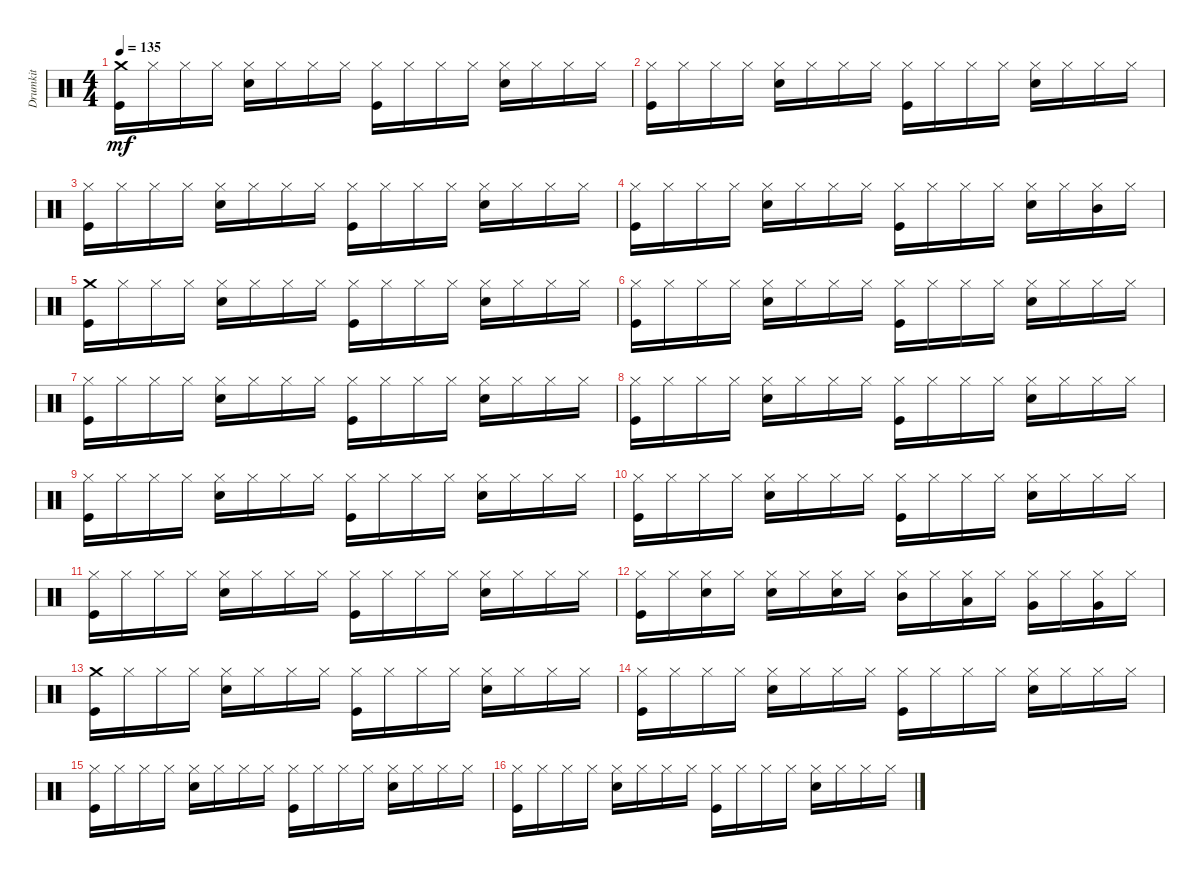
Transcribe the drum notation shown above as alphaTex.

\track ("Drumkit" "Drumkit") {instrument percussion}
\staff {score}
\articulation defaults
\ts (4 4)
\tempo 135
\clef neutral
\ks c
("Crash medium (hit)" "Kick (hit)").16{dy mf} "Hi-Hat (closed)".16 "Hi-Hat (closed)".16 "Hi-Hat (closed)".16 ("Hi-Hat (closed)" "Snare (hit) 2").16 "Hi-Hat (closed)".16 "Hi-Hat (closed)".16 "Hi-Hat (closed)".16 ("Hi-Hat (closed)" "Kick (hit)").16 "Hi-Hat (closed)".16 "Hi-Hat (closed)".16 "Hi-Hat (closed)".16 ("Hi-Hat (closed)" "Snare (hit) 2").16 "Hi-Hat (closed)".16 "Hi-Hat (closed)".16 "Hi-Hat (closed)".16 |
("Hi-Hat (closed)" "Kick (hit)").16 "Hi-Hat (closed)".16 "Hi-Hat (closed)".16 "Hi-Hat (closed)".16 ("Hi-Hat (closed)" "Snare (hit) 2").16 "Hi-Hat (closed)".16 "Hi-Hat (closed)".16 "Hi-Hat (closed)".16 ("Hi-Hat (closed)" "Kick (hit)").16 "Hi-Hat (closed)".16 "Hi-Hat (closed)".16 "Hi-Hat (closed)".16 ("Hi-Hat (closed)" "Snare (hit) 2").16 "Hi-Hat (closed)".16 "Hi-Hat (closed)".16 "Hi-Hat (closed)".16 |
("Hi-Hat (closed)" "Kick (hit)").16 "Hi-Hat (closed)".16 "Hi-Hat (closed)".16 "Hi-Hat (closed)".16 ("Hi-Hat (closed)" "Snare (hit) 2").16 "Hi-Hat (closed)".16 "Hi-Hat (closed)".16 "Hi-Hat (closed)".16 ("Hi-Hat (closed)" "Kick (hit)").16 "Hi-Hat (closed)".16 "Hi-Hat (closed)".16 "Hi-Hat (closed)".16 ("Hi-Hat (closed)" "Snare (hit) 2").16 "Hi-Hat (closed)".16 "Hi-Hat (closed)".16 "Hi-Hat (closed)".16 |
("Hi-Hat (closed)" "Kick (hit)").16 "Hi-Hat (closed)".16 "Hi-Hat (closed)".16 "Hi-Hat (closed)".16 ("Hi-Hat (closed)" "Snare (hit) 2").16 "Hi-Hat (closed)".16 "Hi-Hat (closed)".16 "Hi-Hat (closed)".16 ("Hi-Hat (closed)" "Kick (hit)").16 "Hi-Hat (closed)".16 "Hi-Hat (closed)".16 "Hi-Hat (closed)".16 ("Hi-Hat (closed)" "Snare (hit) 2").16 "Hi-Hat (closed)".16 ("Hi-Hat (closed)" "Mid Tom (hit)").16 "Hi-Hat (closed)".16 |
("Crash medium (hit)" "Kick (hit)").16 "Hi-Hat (closed)".16 "Hi-Hat (closed)".16 "Hi-Hat (closed)".16 ("Hi-Hat (closed)" "Snare (hit) 2").16 "Hi-Hat (closed)".16 "Hi-Hat (closed)".16 "Hi-Hat (closed)".16 ("Hi-Hat (closed)" "Kick (hit)").16 "Hi-Hat (closed)".16 "Hi-Hat (closed)".16 "Hi-Hat (closed)".16 ("Hi-Hat (closed)" "Snare (hit) 2").16 "Hi-Hat (closed)".16 "Hi-Hat (closed)".16 "Hi-Hat (closed)".16 |
("Hi-Hat (closed)" "Kick (hit)").16 "Hi-Hat (closed)".16 "Hi-Hat (closed)".16 "Hi-Hat (closed)".16 ("Hi-Hat (closed)" "Snare (hit) 2").16 "Hi-Hat (closed)".16 "Hi-Hat (closed)".16 "Hi-Hat (closed)".16 ("Hi-Hat (closed)" "Kick (hit)").16 "Hi-Hat (closed)".16 "Hi-Hat (closed)".16 "Hi-Hat (closed)".16 ("Hi-Hat (closed)" "Snare (hit) 2").16 "Hi-Hat (closed)".16 "Hi-Hat (closed)".16 "Hi-Hat (closed)".16 |
("Hi-Hat (closed)" "Kick (hit)").16 "Hi-Hat (closed)".16 "Hi-Hat (closed)".16 "Hi-Hat (closed)".16 ("Hi-Hat (closed)" "Snare (hit) 2").16 "Hi-Hat (closed)".16 "Hi-Hat (closed)".16 "Hi-Hat (closed)".16 ("Hi-Hat (closed)" "Kick (hit)").16 "Hi-Hat (closed)".16 "Hi-Hat (closed)".16 "Hi-Hat (closed)".16 ("Hi-Hat (closed)" "Snare (hit) 2").16 "Hi-Hat (closed)".16 "Hi-Hat (closed)".16 "Hi-Hat (closed)".16 |
("Hi-Hat (closed)" "Kick (hit)").16 "Hi-Hat (closed)".16 "Hi-Hat (closed)".16 "Hi-Hat (closed)".16 ("Hi-Hat (closed)" "Snare (hit) 2").16 "Hi-Hat (closed)".16 "Hi-Hat (closed)".16 "Hi-Hat (closed)".16 ("Hi-Hat (closed)" "Kick (hit)").16 "Hi-Hat (closed)".16 "Hi-Hat (closed)".16 "Hi-Hat (closed)".16 ("Hi-Hat (closed)" "Snare (hit) 2").16 "Hi-Hat (closed)".16 "Hi-Hat (closed)".16 "Hi-Hat (closed)".16 |
("Hi-Hat (closed)" "Kick (hit)").16 "Hi-Hat (closed)".16 "Hi-Hat (closed)".16 "Hi-Hat (closed)".16 ("Hi-Hat (closed)" "Snare (hit) 2").16 "Hi-Hat (closed)".16 "Hi-Hat (closed)".16 "Hi-Hat (closed)".16 ("Hi-Hat (closed)" "Kick (hit)").16 "Hi-Hat (closed)".16 "Hi-Hat (closed)".16 "Hi-Hat (closed)".16 ("Hi-Hat (closed)" "Snare (hit) 2").16 "Hi-Hat (closed)".16 "Hi-Hat (closed)".16 "Hi-Hat (closed)".16 |
("Hi-Hat (closed)" "Kick (hit)").16 "Hi-Hat (closed)".16 "Hi-Hat (closed)".16 "Hi-Hat (closed)".16 ("Hi-Hat (closed)" "Snare (hit) 2").16 "Hi-Hat (closed)".16 "Hi-Hat (closed)".16 "Hi-Hat (closed)".16 ("Hi-Hat (closed)" "Kick (hit)").16 "Hi-Hat (closed)".16 "Hi-Hat (closed)".16 "Hi-Hat (closed)".16 ("Hi-Hat (closed)" "Snare (hit) 2").16 "Hi-Hat (closed)".16 "Hi-Hat (closed)".16 "Hi-Hat (closed)".16 |
("Hi-Hat (closed)" "Kick (hit)").16 "Hi-Hat (closed)".16 "Hi-Hat (closed)".16 "Hi-Hat (closed)".16 ("Hi-Hat (closed)" "Snare (hit) 2").16 "Hi-Hat (closed)".16 "Hi-Hat (closed)".16 "Hi-Hat (closed)".16 ("Hi-Hat (closed)" "Kick (hit)").16 "Hi-Hat (closed)".16 "Hi-Hat (closed)".16 "Hi-Hat (closed)".16 ("Hi-Hat (closed)" "Snare (hit) 2").16 "Hi-Hat (closed)".16 "Hi-Hat (closed)".16 "Hi-Hat (closed)".16 |
("Hi-Hat (closed)" "Kick (hit)").16 "Hi-Hat (closed)".16 ("Hi-Hat (closed)" "Snare (hit) 2").16 "Hi-Hat (closed)".16 ("Hi-Hat (closed)" "Snare (hit) 2").16 "Hi-Hat (closed)".16 ("Hi-Hat (closed)" "Snare (hit) 2").16 "Hi-Hat (closed)".16 ("Hi-Hat (closed)" "Mid Tom (hit)").16 "Hi-Hat (closed)".16 ("Hi-Hat (closed)" "Low Tom (hit)").16 "Hi-Hat (closed)".16 ("Hi-Hat (closed)" "Very Low Tom (hit)").16 "Hi-Hat (closed)".16 ("Hi-Hat (closed)" "Very Low Tom (hit)").16 "Hi-Hat (closed)".16 |
("Crash medium (hit)" "Kick (hit)").16 "Hi-Hat (closed)".16 "Hi-Hat (closed)".16 "Hi-Hat (closed)".16 ("Hi-Hat (closed)" "Snare (hit) 2").16 "Hi-Hat (closed)".16 "Hi-Hat (closed)".16 "Hi-Hat (closed)".16 ("Hi-Hat (closed)" "Kick (hit)").16 "Hi-Hat (closed)".16 "Hi-Hat (closed)".16 "Hi-Hat (closed)".16 ("Hi-Hat (closed)" "Snare (hit) 2").16 "Hi-Hat (closed)".16 "Hi-Hat (closed)".16 "Hi-Hat (closed)".16 |
("Hi-Hat (closed)" "Kick (hit)").16 "Hi-Hat (closed)".16 "Hi-Hat (closed)".16 "Hi-Hat (closed)".16 ("Hi-Hat (closed)" "Snare (hit) 2").16 "Hi-Hat (closed)".16 "Hi-Hat (closed)".16 "Hi-Hat (closed)".16 ("Hi-Hat (closed)" "Kick (hit)").16 "Hi-Hat (closed)".16 "Hi-Hat (closed)".16 "Hi-Hat (closed)".16 ("Hi-Hat (closed)" "Snare (hit) 2").16 "Hi-Hat (closed)".16 "Hi-Hat (closed)".16 "Hi-Hat (closed)".16 |
("Hi-Hat (closed)" "Kick (hit)").16 "Hi-Hat (closed)".16 "Hi-Hat (closed)".16 "Hi-Hat (closed)".16 ("Hi-Hat (closed)" "Snare (hit) 2").16 "Hi-Hat (closed)".16 "Hi-Hat (closed)".16 "Hi-Hat (closed)".16 ("Hi-Hat (closed)" "Kick (hit)").16 "Hi-Hat (closed)".16 "Hi-Hat (closed)".16 "Hi-Hat (closed)".16 ("Hi-Hat (closed)" "Snare (hit) 2").16 "Hi-Hat (closed)".16 "Hi-Hat (closed)".16 "Hi-Hat (closed)".16 |
("Hi-Hat (closed)" "Kick (hit)").16 "Hi-Hat (closed)".16 "Hi-Hat (closed)".16 "Hi-Hat (closed)".16 ("Hi-Hat (closed)" "Snare (hit) 2").16 "Hi-Hat (closed)".16 "Hi-Hat (closed)".16 "Hi-Hat (closed)".16 ("Hi-Hat (closed)" "Kick (hit)").16 "Hi-Hat (closed)".16 "Hi-Hat (closed)".16 "Hi-Hat (closed)".16 ("Hi-Hat (closed)" "Snare (hit) 2").16 "Hi-Hat (closed)".16 "Hi-Hat (closed)".16 "Hi-Hat (closed)".16
